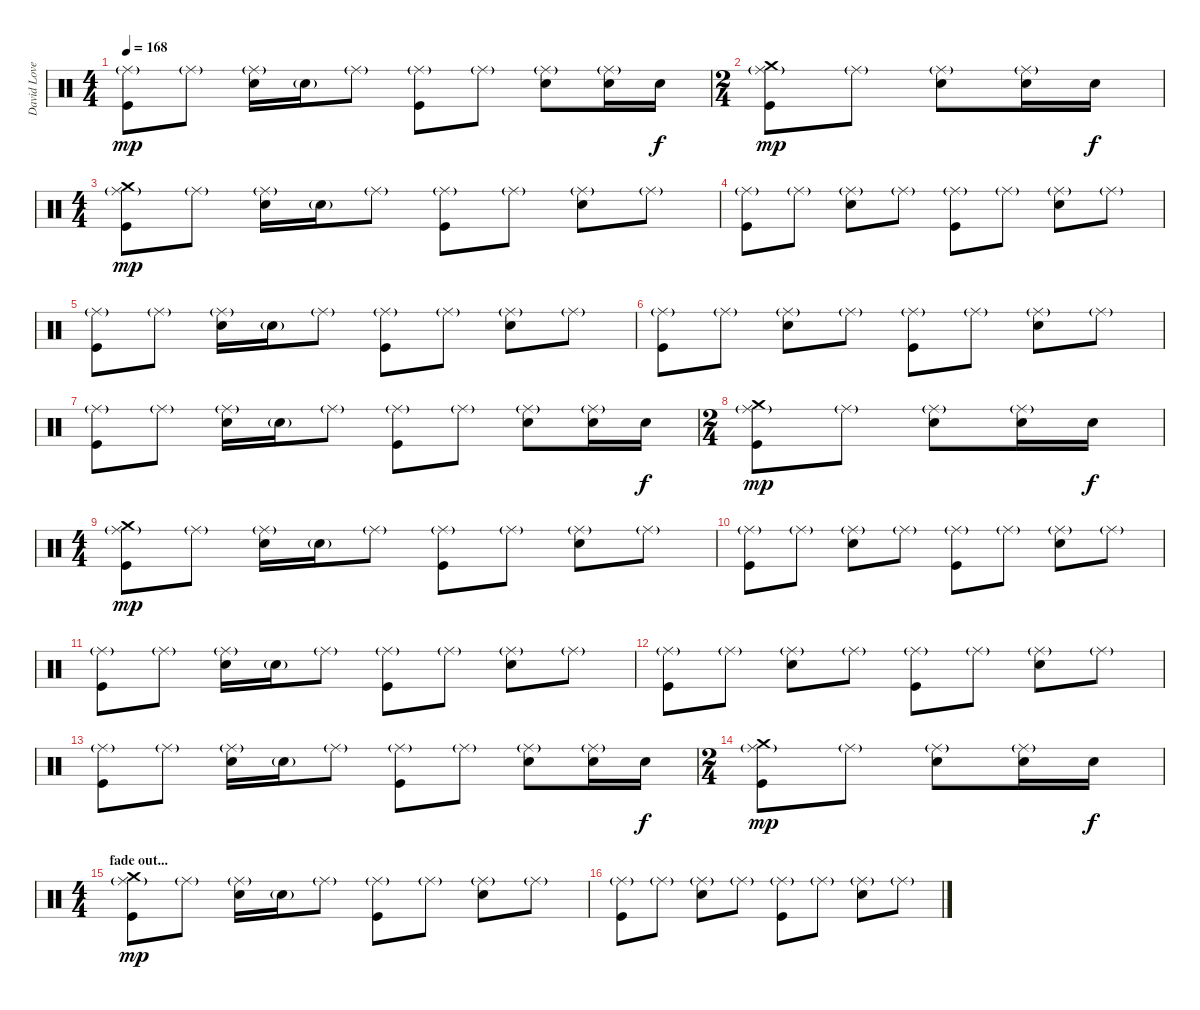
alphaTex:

\track ("David Lovering" "David Love") {instrument percussion}
\staff {score}
\articulation defaults
\ts (4 4)
\tempo 168
\clef neutral
\ks c
("Ride (middle)"{g} "Kick (hit)").8{dy mp} "Ride (middle)"{g}.8 ("Ride (middle)"{g} "Snare (hit) 2").16 "Snare (hit) 2"{g}.16 "Ride (middle)"{g}.8 ("Ride (middle)"{g} "Kick (hit)").8 "Ride (middle)"{g}.8 ("Ride (middle)"{g} "Snare (hit) 2").8 ("Ride (middle)"{g} "Snare (hit) 2").16 "Snare (hit) 2".16{dy f} |
\ts (2 4)
("Ride (middle)"{g} "Crash medium (hit)" "Kick (hit)").8{dy mp} "Ride (middle)"{g}.8 ("Ride (middle)"{g} "Snare (hit) 2").8 ("Ride (middle)"{g} "Snare (hit) 2").16 "Snare (hit) 2".16{dy f} |
\ts (4 4)
("Ride (middle)"{g} "Crash medium (hit)" "Kick (hit)").8{dy mp} "Ride (middle)"{g}.8 ("Ride (middle)"{g} "Snare (hit) 2").16 "Snare (hit) 2"{g}.16 "Ride (middle)"{g}.8 ("Ride (middle)"{g} "Kick (hit)").8 "Ride (middle)"{g}.8 ("Ride (middle)"{g} "Snare (hit) 2").8 "Ride (middle)"{g}.8 |
("Ride (middle)"{g} "Kick (hit)").8 "Ride (middle)"{g}.8 ("Ride (middle)"{g} "Snare (hit) 2").8 "Ride (middle)"{g}.8 ("Ride (middle)"{g} "Kick (hit)").8 "Ride (middle)"{g}.8 ("Ride (middle)"{g} "Snare (hit) 2").8 "Ride (middle)"{g}.8 |
("Ride (middle)"{g} "Kick (hit)").8 "Ride (middle)"{g}.8 ("Ride (middle)"{g} "Snare (hit) 2").16 "Snare (hit) 2"{g}.16 "Ride (middle)"{g}.8 ("Ride (middle)"{g} "Kick (hit)").8 "Ride (middle)"{g}.8 ("Ride (middle)"{g} "Snare (hit) 2").8 "Ride (middle)"{g}.8 |
("Ride (middle)"{g} "Kick (hit)").8 "Ride (middle)"{g}.8 ("Ride (middle)"{g} "Snare (hit) 2").8 "Ride (middle)"{g}.8 ("Ride (middle)"{g} "Kick (hit)").8 "Ride (middle)"{g}.8 ("Ride (middle)"{g} "Snare (hit) 2").8 "Ride (middle)"{g}.8 |
("Ride (middle)"{g} "Kick (hit)").8 "Ride (middle)"{g}.8 ("Ride (middle)"{g} "Snare (hit) 2").16 "Snare (hit) 2"{g}.16 "Ride (middle)"{g}.8 ("Ride (middle)"{g} "Kick (hit)").8 "Ride (middle)"{g}.8 ("Ride (middle)"{g} "Snare (hit) 2").8 ("Ride (middle)"{g} "Snare (hit) 2").16 "Snare (hit) 2".16{dy f} |
\ts (2 4)
("Ride (middle)"{g} "Crash medium (hit)" "Kick (hit)").8{dy mp} "Ride (middle)"{g}.8 ("Ride (middle)"{g} "Snare (hit) 2").8 ("Ride (middle)"{g} "Snare (hit) 2").16 "Snare (hit) 2".16{dy f} |
\ts (4 4)
("Ride (middle)"{g} "Crash medium (hit)" "Kick (hit)").8{dy mp} "Ride (middle)"{g}.8 ("Ride (middle)"{g} "Snare (hit) 2").16 "Snare (hit) 2"{g}.16 "Ride (middle)"{g}.8 ("Ride (middle)"{g} "Kick (hit)").8 "Ride (middle)"{g}.8 ("Ride (middle)"{g} "Snare (hit) 2").8 "Ride (middle)"{g}.8 |
("Ride (middle)"{g} "Kick (hit)").8 "Ride (middle)"{g}.8 ("Ride (middle)"{g} "Snare (hit) 2").8 "Ride (middle)"{g}.8 ("Ride (middle)"{g} "Kick (hit)").8 "Ride (middle)"{g}.8 ("Ride (middle)"{g} "Snare (hit) 2").8 "Ride (middle)"{g}.8 |
("Ride (middle)"{g} "Kick (hit)").8 "Ride (middle)"{g}.8 ("Ride (middle)"{g} "Snare (hit) 2").16 "Snare (hit) 2"{g}.16 "Ride (middle)"{g}.8 ("Ride (middle)"{g} "Kick (hit)").8 "Ride (middle)"{g}.8 ("Ride (middle)"{g} "Snare (hit) 2").8 "Ride (middle)"{g}.8 |
("Ride (middle)"{g} "Kick (hit)").8 "Ride (middle)"{g}.8 ("Ride (middle)"{g} "Snare (hit) 2").8 "Ride (middle)"{g}.8 ("Ride (middle)"{g} "Kick (hit)").8 "Ride (middle)"{g}.8 ("Ride (middle)"{g} "Snare (hit) 2").8 "Ride (middle)"{g}.8 |
("Ride (middle)"{g} "Kick (hit)").8 "Ride (middle)"{g}.8 ("Ride (middle)"{g} "Snare (hit) 2").16 "Snare (hit) 2"{g}.16 "Ride (middle)"{g}.8 ("Ride (middle)"{g} "Kick (hit)").8 "Ride (middle)"{g}.8 ("Ride (middle)"{g} "Snare (hit) 2").8 ("Ride (middle)"{g} "Snare (hit) 2").16 "Snare (hit) 2".16{dy f} |
\ts (2 4)
("Ride (middle)"{g} "Crash medium (hit)" "Kick (hit)").8{dy mp} "Ride (middle)"{g}.8 ("Ride (middle)"{g} "Snare (hit) 2").8 ("Ride (middle)"{g} "Snare (hit) 2").16 "Snare (hit) 2".16{dy f} |
\ts (4 4)
\section ("" "fade out...")
("Ride (middle)"{g} "Crash medium (hit)" "Kick (hit)").8{dy mp} "Ride (middle)"{g}.8 ("Ride (middle)"{g} "Snare (hit) 2").16 "Snare (hit) 2"{g}.16 "Ride (middle)"{g}.8 ("Ride (middle)"{g} "Kick (hit)").8 "Ride (middle)"{g}.8 ("Ride (middle)"{g} "Snare (hit) 2").8 "Ride (middle)"{g}.8 |
("Ride (middle)"{g} "Kick (hit)").8 "Ride (middle)"{g}.8 ("Ride (middle)"{g} "Snare (hit) 2").8 "Ride (middle)"{g}.8 ("Ride (middle)"{g} "Kick (hit)").8 "Ride (middle)"{g}.8 ("Ride (middle)"{g} "Snare (hit) 2").8 "Ride (middle)"{g}.8
